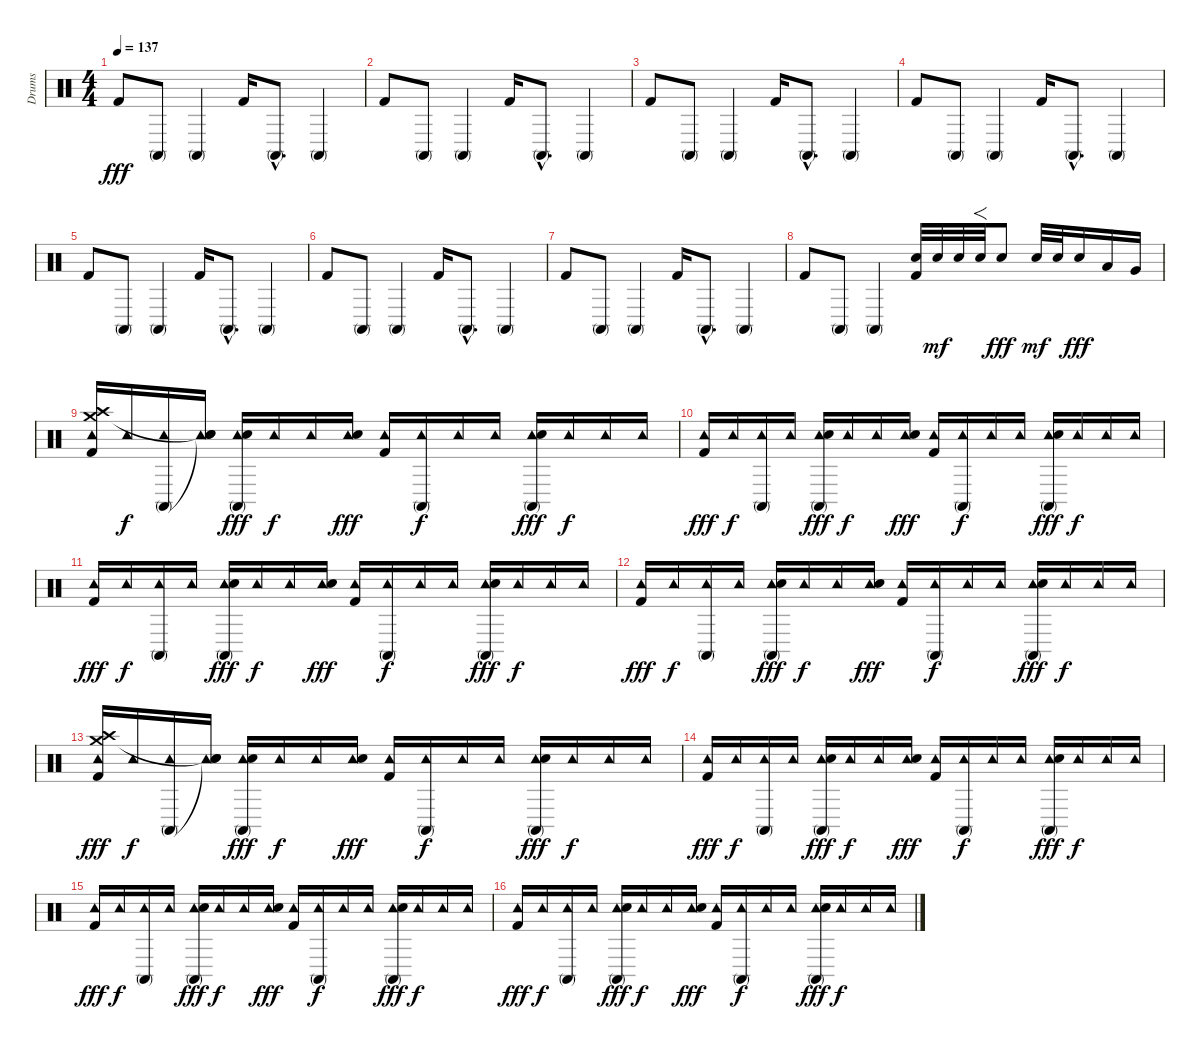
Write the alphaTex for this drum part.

\track ("Drums" "Drums") {instrument percussion}
\staff {score}
\articulation defaults
\ts (4 4)
\tempo 137
\clef neutral
\ks c "Kick (hit) 2".8{dy fff} "Conga high (mute)".8 "Conga high (mute)".4 "Kick (hit) 2".16 "Conga high (mute)"{hac}.8{d} "Conga high (mute)".4
|
"Kick (hit) 2".8 "Conga high (mute)".8 "Conga high (mute)".4 "Kick (hit) 2".16 "Conga high (mute)"{hac}.8{d} "Conga high (mute)".4 |
"Kick (hit) 2".8 "Conga high (mute)".8 "Conga high (mute)".4 "Kick (hit) 2".16 "Conga high (mute)"{hac}.8{d} "Conga high (mute)".4 |
"Kick (hit) 2".8 "Conga high (mute)".8 "Conga high (mute)".4 "Kick (hit) 2".16 "Conga high (mute)"{hac}.8{d} "Conga high (mute)".4 |
"Kick (hit) 2".8 "Conga high (mute)".8 "Conga high (mute)".4 "Kick (hit) 2".16 "Conga high (mute)"{hac}.8{d} "Conga high (mute)".4 |
"Kick (hit) 2".8 "Conga high (mute)".8 "Conga high (mute)".4 "Kick (hit) 2".16 "Conga high (mute)"{hac}.8{d} "Conga high (mute)".4 |
"Kick (hit) 2".8 "Conga high (mute)".8 "Conga high (mute)".4 "Kick (hit) 2".16 "Conga high (mute)"{hac}.8{d} "Conga high (mute)".4 |
"Kick (hit) 2".8 "Conga high (mute)".8 "Conga high (mute)".4 ("Electric Snare (hit)" "Kick (hit) 2").32 "Electric Snare (hit)".32{dy mf} "Electric Snare (hit)".32 "Electric Snare (hit)".32{f} "Electric Snare (hit)".8{dy fff} "Electric Snare (hit)".32{dy mf} "Electric Snare (hit)".32 "Electric Snare (hit)".16{dy fff} "Low Tom (hit)".16 "Very Low Tom (hit)".16 |
("Tambourine (hit)" "Crash high (hit)" "Crash medium (hit)" "Kick (hit) 2").16 "Tambourine (hit)".16{dy f} ("Tambourine (hit)" "Conga high (mute)").16 ("Tambourine (hit)" "Snare (hit)"{t} "Snare (hit)"{t}).16 ("Tambourine (hit)" "Conga high (mute)" "Electric Snare (hit)").16{dy fff} "Tambourine (hit)".16{dy f} "Tambourine (hit)".16 ("Tambourine (hit)" "Electric Snare (hit)").16{dy fff} ("Tambourine (hit)" "Kick (hit) 2").16 ("Tambourine (hit)" "Conga high (mute)").16{dy f} "Tambourine (hit)".16 "Tambourine (hit)".16 ("Tambourine (hit)" "Conga high (mute)" "Electric Snare (hit)").16{dy fff} "Tambourine (hit)".16{dy f} "Tambourine (hit)".16 "Tambourine (hit)".16 |
("Tambourine (hit)" "Kick (hit) 2").16{dy fff} "Tambourine (hit)".16{dy f} ("Tambourine (hit)" "Conga high (mute)").16 "Tambourine (hit)".16 ("Tambourine (hit)" "Conga high (mute)" "Electric Snare (hit)").16{dy fff} "Tambourine (hit)".16{dy f} "Tambourine (hit)".16 ("Tambourine (hit)" "Electric Snare (hit)").16{dy fff} ("Tambourine (hit)" "Kick (hit) 2").16 ("Tambourine (hit)" "Conga high (mute)").16{dy f} "Tambourine (hit)".16 "Tambourine (hit)".16 ("Tambourine (hit)" "Conga high (mute)" "Electric Snare (hit)").16{dy fff} "Tambourine (hit)".16{dy f} "Tambourine (hit)".16 "Tambourine (hit)".16 |
("Tambourine (hit)" "Kick (hit) 2").16{dy fff} "Tambourine (hit)".16{dy f} ("Tambourine (hit)" "Conga high (mute)").16 "Tambourine (hit)".16 ("Tambourine (hit)" "Conga high (mute)" "Electric Snare (hit)").16{dy fff} "Tambourine (hit)".16{dy f} "Tambourine (hit)".16 ("Tambourine (hit)" "Electric Snare (hit)").16{dy fff} ("Tambourine (hit)" "Kick (hit) 2").16 ("Tambourine (hit)" "Conga high (mute)").16{dy f} "Tambourine (hit)".16 "Tambourine (hit)".16 ("Tambourine (hit)" "Conga high (mute)" "Electric Snare (hit)").16{dy fff} "Tambourine (hit)".16{dy f} "Tambourine (hit)".16 "Tambourine (hit)".16 |
("Tambourine (hit)" "Kick (hit) 2").16{dy fff} "Tambourine (hit)".16{dy f} ("Tambourine (hit)" "Conga high (mute)").16 "Tambourine (hit)".16 ("Tambourine (hit)" "Conga high (mute)" "Electric Snare (hit)").16{dy fff} "Tambourine (hit)".16{dy f} "Tambourine (hit)".16 ("Tambourine (hit)" "Electric Snare (hit)").16{dy fff} ("Tambourine (hit)" "Kick (hit) 2").16 ("Tambourine (hit)" "Conga high (mute)").16{dy f} "Tambourine (hit)".16 "Tambourine (hit)".16 ("Tambourine (hit)" "Conga high (mute)" "Electric Snare (hit)").16{dy fff} "Tambourine (hit)".16{dy f} "Tambourine (hit)".16 "Tambourine (hit)".16 |
("Tambourine (hit)" "Crash high (hit)" "Crash medium (hit)" "Kick (hit) 2").16{dy fff} "Tambourine (hit)".16{dy f} ("Tambourine (hit)" "Conga high (mute)").16 ("Tambourine (hit)" "Snare (hit)"{t} "Snare (hit)"{t}).16 ("Tambourine (hit)" "Conga high (mute)" "Electric Snare (hit)").16{dy fff} "Tambourine (hit)".16{dy f} "Tambourine (hit)".16 ("Tambourine (hit)" "Electric Snare (hit)").16{dy fff} ("Tambourine (hit)" "Kick (hit) 2").16 ("Tambourine (hit)" "Conga high (mute)").16{dy f} "Tambourine (hit)".16 "Tambourine (hit)".16 ("Tambourine (hit)" "Conga high (mute)" "Electric Snare (hit)").16{dy fff} "Tambourine (hit)".16{dy f} "Tambourine (hit)".16 "Tambourine (hit)".16 |
("Tambourine (hit)" "Kick (hit) 2").16{dy fff} "Tambourine (hit)".16{dy f} ("Tambourine (hit)" "Conga high (mute)").16 "Tambourine (hit)".16 ("Tambourine (hit)" "Conga high (mute)" "Electric Snare (hit)").16{dy fff} "Tambourine (hit)".16{dy f} "Tambourine (hit)".16 ("Tambourine (hit)" "Electric Snare (hit)").16{dy fff} ("Tambourine (hit)" "Kick (hit) 2").16 ("Tambourine (hit)" "Conga high (mute)").16{dy f} "Tambourine (hit)".16 "Tambourine (hit)".16 ("Tambourine (hit)" "Conga high (mute)" "Electric Snare (hit)").16{dy fff} "Tambourine (hit)".16{dy f} "Tambourine (hit)".16 "Tambourine (hit)".16 |
("Tambourine (hit)" "Kick (hit) 2").16{dy fff} "Tambourine (hit)".16{dy f} ("Tambourine (hit)" "Conga high (mute)").16 "Tambourine (hit)".16 ("Tambourine (hit)" "Conga high (mute)" "Electric Snare (hit)").16{dy fff} "Tambourine (hit)".16{dy f} "Tambourine (hit)".16 ("Tambourine (hit)" "Electric Snare (hit)").16{dy fff} ("Tambourine (hit)" "Kick (hit) 2").16 ("Tambourine (hit)" "Conga high (mute)").16{dy f} "Tambourine (hit)".16 "Tambourine (hit)".16 ("Tambourine (hit)" "Conga high (mute)" "Electric Snare (hit)").16{dy fff} "Tambourine (hit)".16{dy f} "Tambourine (hit)".16 "Tambourine (hit)".16 |
("Tambourine (hit)" "Kick (hit) 2").16{dy fff} "Tambourine (hit)".16{dy f} ("Tambourine (hit)" "Conga high (mute)").16 "Tambourine (hit)".16 ("Tambourine (hit)" "Conga high (mute)" "Electric Snare (hit)").16{dy fff} "Tambourine (hit)".16{dy f} "Tambourine (hit)".16 ("Tambourine (hit)" "Electric Snare (hit)").16{dy fff} ("Tambourine (hit)" "Kick (hit) 2").16 ("Tambourine (hit)" "Conga high (mute)").16{dy f} "Tambourine (hit)".16 "Tambourine (hit)".16 ("Tambourine (hit)" "Conga high (mute)" "Electric Snare (hit)").16{dy fff} "Tambourine (hit)".16{dy f} "Tambourine (hit)".16 "Tambourine (hit)".16
